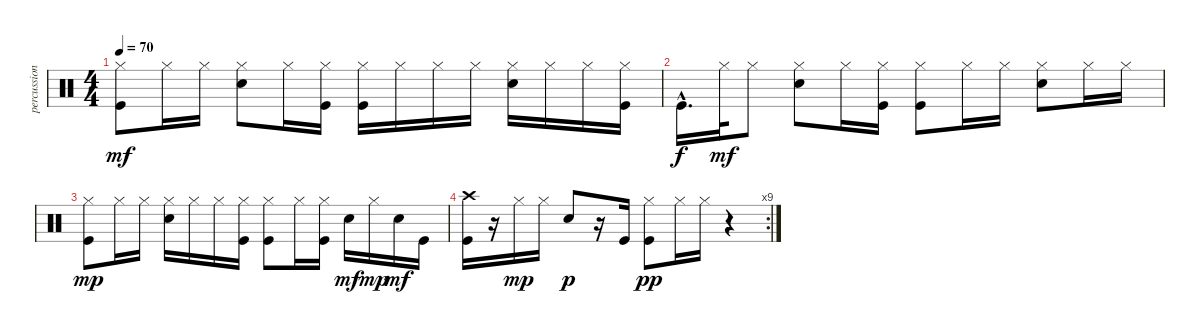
\track ("percussion" "percussion") {instrument percussion}
\staff {score}
\articulation defaults
\ts (4 4)
\tempo 70
\clef neutral
\ks c
("Hi-Hat (closed)" "Kick (hit)").8{dy mf} "Hi-Hat (closed)".16 "Hi-Hat (closed)".16 ("Snare (hit) 2" "Hi-Hat (closed)").8 "Hi-Hat (closed)".16 ("Hi-Hat (closed)" "Kick (hit)").16 ("Hi-Hat (closed)" "Kick (hit)").16 "Hi-Hat (closed)".16 "Hi-Hat (closed)".16 "Hi-Hat (closed)".16 ("Snare (hit) 2" "Hi-Hat (closed)").16 "Hi-Hat (closed)".16 "Hi-Hat (closed)".16 ("Hi-Hat (closed)" "Kick (hit)").16 |
"Kick (hit)"{hac}.16{d dy f} "Hi-Hat (closed)".32{dy mf} "Hi-Hat (closed)".8 ("Snare (hit) 2" "Hi-Hat (closed)").8 "Hi-Hat (closed)".16 ("Hi-Hat (closed)" "Kick (hit)").16 ("Hi-Hat (closed)" "Kick (hit)").8 "Hi-Hat (closed)".16 "Hi-Hat (closed)".16 ("Snare (hit) 2" "Hi-Hat (closed)").8 "Hi-Hat (closed)".16 "Hi-Hat (closed)".16 |
("Hi-Hat (closed)" "Kick (hit)").8{dy mp} "Hi-Hat (closed)".16 "Hi-Hat (closed)".16 ("Snare (hit) 2" "Hi-Hat (closed)").16 "Hi-Hat (closed)".16 "Hi-Hat (closed)".16 ("Hi-Hat (closed)" "Kick (hit)").16 ("Hi-Hat (closed)" "Kick (hit)").8 "Hi-Hat (closed)".16 ("Hi-Hat (closed)" "Kick (hit)").16 "Snare (hit) 2".16{dy mf} "Hi-Hat (closed)".16{dy mp} "Snare (hit) 2".16{dy mf} "Kick (hit)".16 |
\rc 9
("Crash high (hit)" "Kick (hit)").16 r.16 "Hi-Hat (closed)".16{dy mp} "Hi-Hat (closed)".16 "Snare (hit) 2".8{dy p} r.16 "Kick (hit)".16 ("Hi-Hat (closed)" "Kick (hit)").8{dy pp} "Hi-Hat (closed)".16 "Hi-Hat (closed)".16 r.4
